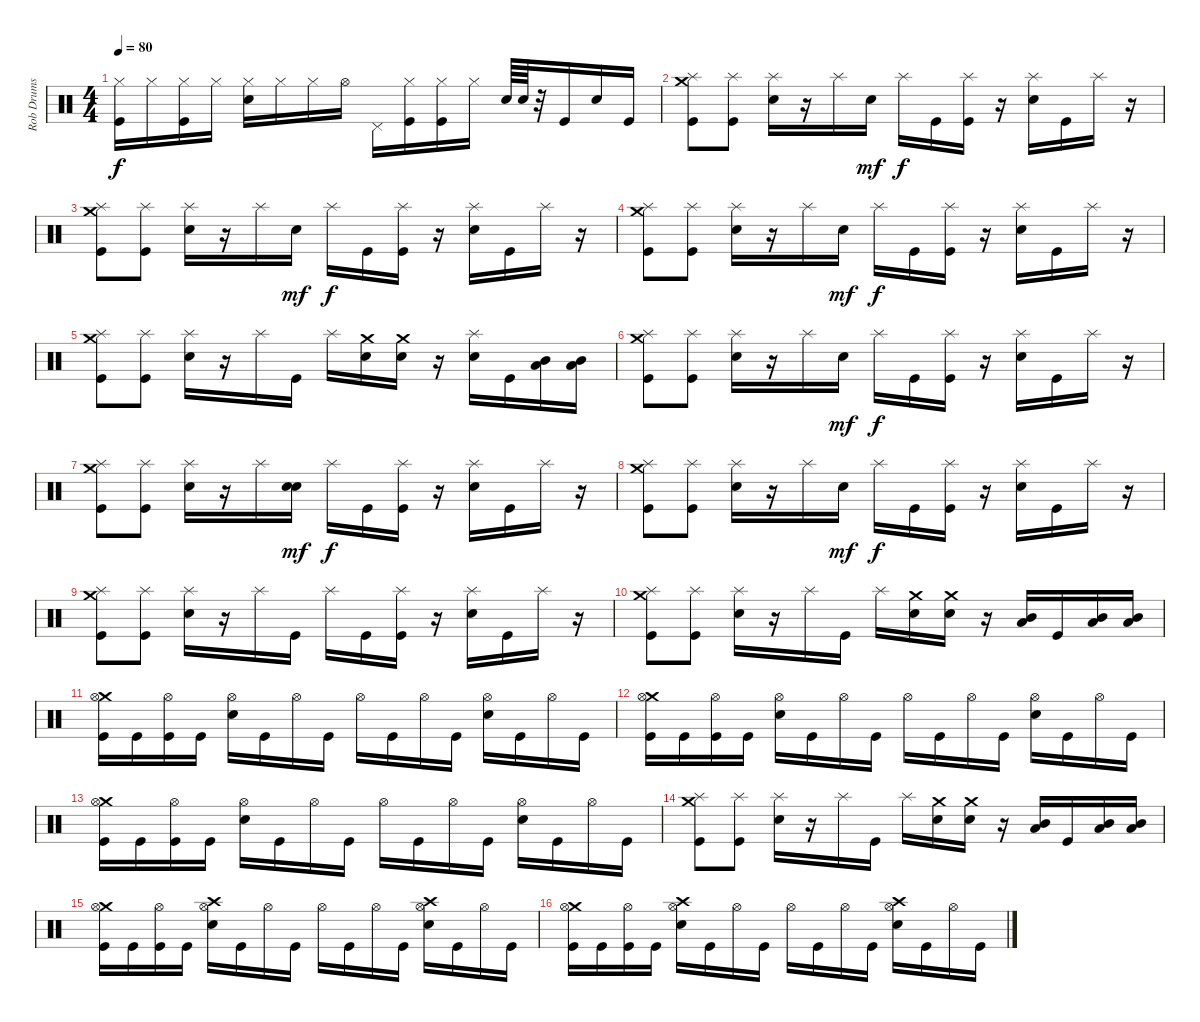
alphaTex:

\track ("Rob Drums" "Rob Drums") {instrument percussion}
\staff {score}
\articulation defaults
\ts (4 4)
\tempo 80
\clef neutral
\ks c
("Hi-Hat (closed)" "Kick (hit)").16{dy f} "Hi-Hat (closed)".16 ("Hi-Hat (closed)" "Kick (hit)").16 "Hi-Hat (closed)".16 ("Hi-Hat (closed)" "Snare (hit) 2").16 "Hi-Hat (closed)".16 "Hi-Hat (closed)".16 "Hi-Hat (open)".16 "Pedal Hi-Hat (hit)".16 ("Hi-Hat (closed)" "Kick (hit)").16 ("Hi-Hat (closed)" "Kick (hit)").16 "Hi-Hat (closed)".16 "Snare (hit) 2".64 "Snare (hit) 2".64 r.32 "Kick (hit)".16 "Snare (hit) 2".16 "Kick (hit)".16 |
("Crash medium (hit)" "Splash (hit)" "Kick (hit)").8 ("Splash (hit)" "Kick (hit)").8 ("Splash (hit)" "Snare (hit) 2").16 r.16 "Splash (hit)".16 "Snare (hit) 2".16{dy mf} "Splash (hit)".16{dy f} "Kick (hit)".16 ("Splash (hit)" "Kick (hit)").16 r.16 ("Splash (hit)" "Snare (hit) 2").16 "Kick (hit)".16 "Splash (hit)".16 r.16 |
("Crash medium (hit)" "Splash (hit)" "Kick (hit)").8 ("Splash (hit)" "Kick (hit)").8 ("Splash (hit)" "Snare (hit) 2").16 r.16 "Splash (hit)".16 "Snare (hit) 2".16{dy mf} "Splash (hit)".16{dy f} "Kick (hit)".16 ("Splash (hit)" "Kick (hit)").16 r.16 ("Splash (hit)" "Snare (hit) 2").16 "Kick (hit)".16 "Splash (hit)".16 r.16 |
("Crash medium (hit)" "Splash (hit)" "Kick (hit)").8 ("Splash (hit)" "Kick (hit)").8 ("Splash (hit)" "Snare (hit) 2").16 r.16 "Splash (hit)".16 "Snare (hit) 2".16{dy mf} "Splash (hit)".16{dy f} "Kick (hit)".16 ("Splash (hit)" "Kick (hit)").16 r.16 ("Splash (hit)" "Snare (hit) 2").16 "Kick (hit)".16 "Splash (hit)".16 r.16 |
("Crash medium (hit)" "Splash (hit)" "Kick (hit)").8 ("Splash (hit)" "Kick (hit)").8 ("Splash (hit)" "Snare (hit) 2").16 r.16 "Splash (hit)".16 "Kick (hit)".16 "Splash (hit)".16 ("Crash medium (hit)" "Snare (hit) 2").16 ("Crash medium (hit)" "Snare (hit) 2").16 r.16 ("Splash (hit)" "Snare (hit) 2").16 "Kick (hit)".16 ("Mid Tom (hit)" "Low Tom (hit)").16 ("Mid Tom (hit)" "Low Tom (hit)").16 |
("Crash medium (hit)" "Splash (hit)" "Kick (hit)").8 ("Splash (hit)" "Kick (hit)").8 ("Splash (hit)" "Snare (hit) 2").16 r.16 "Splash (hit)".16 "Snare (hit) 2".16{dy mf} "Splash (hit)".16{dy f} "Kick (hit)".16 ("Splash (hit)" "Kick (hit)").16 r.16 ("Splash (hit)" "Snare (hit) 2").16 "Kick (hit)".16 "Splash (hit)".16 r.16 |
("Crash medium (hit)" "Splash (hit)" "Kick (hit)").8 ("Splash (hit)" "Kick (hit)").8 ("Splash (hit)" "Snare (hit) 2").16 r.16 "Splash (hit)".16 ("Electric Snare (hit)" "Snare (hit) 2").16{dy mf} "Splash (hit)".16{dy f} "Kick (hit)".16 ("Splash (hit)" "Kick (hit)").16 r.16 ("Splash (hit)" "Snare (hit) 2").16 "Kick (hit)".16 "Splash (hit)".16 r.16 |
("Crash medium (hit)" "Splash (hit)" "Kick (hit)").8 ("Splash (hit)" "Kick (hit)").8 ("Splash (hit)" "Snare (hit) 2").16 r.16 "Splash (hit)".16 "Snare (hit) 2".16{dy mf} "Splash (hit)".16{dy f} "Kick (hit)".16 ("Splash (hit)" "Kick (hit)").16 r.16 ("Splash (hit)" "Snare (hit) 2").16 "Kick (hit)".16 "Splash (hit)".16 r.16 |
("Crash medium (hit)" "Splash (hit)" "Kick (hit)").8 ("Splash (hit)" "Kick (hit)").8 ("Splash (hit)" "Snare (hit) 2").16 r.16 "Splash (hit)".16 "Kick (hit)".16 "Splash (hit)".16 "Kick (hit)".16 ("Splash (hit)" "Kick (hit)").16 r.16 ("Splash (hit)" "Snare (hit) 2").16 "Kick (hit)".16 "Splash (hit)".16 r.16 |
("Crash medium (hit)" "Splash (hit)" "Kick (hit)").8 ("Splash (hit)" "Kick (hit)").8 ("Splash (hit)" "Snare (hit) 2").16 r.16 "Splash (hit)".16 "Kick (hit)".16 "Splash (hit)".16 ("Crash medium (hit)" "Snare (hit)").16 ("Crash medium (hit)" "Snare (hit)").16 r.16 ("Mid Tom (hit)" "Low Tom (hit)").16 "Kick (hit)".16 ("Mid Tom (hit)" "Low Tom (hit)").16 ("Mid Tom (hit)" "Low Tom (hit)").16 |
("Crash medium (hit)" "Hi-Hat (open)" "Kick (hit)").16 "Kick (hit)".16 ("Hi-Hat (open)" "Kick (hit)").16 "Kick (hit)".16 ("Hi-Hat (open)" "Snare (hit) 2").16 "Kick (hit)".16 "Hi-Hat (open)".16 "Kick (hit)".16 "Hi-Hat (open)".16 "Kick (hit)".16 "Hi-Hat (open)".16 "Kick (hit)".16 ("Hi-Hat (open)" "Snare (hit) 2").16 "Kick (hit)".16 "Hi-Hat (open)".16 "Kick (hit)".16 |
("Crash medium (hit)" "Hi-Hat (open)" "Kick (hit)").16 "Kick (hit)".16 ("Hi-Hat (open)" "Kick (hit)").16 "Kick (hit)".16 ("Hi-Hat (open)" "Snare (hit) 2").16 "Kick (hit)".16 "Hi-Hat (open)".16 "Kick (hit)".16 "Hi-Hat (open)".16 "Kick (hit)".16 "Hi-Hat (open)".16 "Kick (hit)".16 ("Hi-Hat (open)" "Snare (hit) 2").16 "Kick (hit)".16 "Hi-Hat (open)".16 "Kick (hit)".16 |
("Crash medium (hit)" "Hi-Hat (open)" "Kick (hit)").16 "Kick (hit)".16 ("Hi-Hat (open)" "Kick (hit)").16 "Kick (hit)".16 ("Hi-Hat (open)" "Snare (hit) 2").16 "Kick (hit)".16 "Hi-Hat (open)".16 "Kick (hit)".16 "Hi-Hat (open)".16 "Kick (hit)".16 "Hi-Hat (open)".16 "Kick (hit)".16 ("Hi-Hat (open)" "Snare (hit) 2").16 "Kick (hit)".16 "Hi-Hat (open)".16 "Kick (hit)".16 |
("Crash medium (hit)" "Splash (hit)" "Kick (hit)").8 ("Splash (hit)" "Kick (hit)").8 ("Splash (hit)" "Snare (hit) 2").16 r.16 "Splash (hit)".16 "Kick (hit)".16 "Splash (hit)".16 ("Crash medium (hit)" "Snare (hit)").16 ("Crash medium (hit)" "Snare (hit)").16 r.16 ("Mid Tom (hit)" "Low Tom (hit)").16 "Kick (hit)".16 ("Mid Tom (hit)" "Low Tom (hit)").16 ("Mid Tom (hit)" "Low Tom (hit)").16 |
("Crash medium (hit)" "Hi-Hat (open)" "Kick (hit)").16 "Kick (hit)".16 ("Hi-Hat (open)" "Kick (hit)").16 "Kick (hit)".16 ("Crash high (hit)" "Hi-Hat (open)" "Snare (hit) 2").16 "Kick (hit)".16 "Hi-Hat (open)".16 "Kick (hit)".16 "Hi-Hat (open)".16 "Kick (hit)".16 "Hi-Hat (open)".16 "Kick (hit)".16 ("Crash high (hit)" "Hi-Hat (open)" "Snare (hit) 2").16 "Kick (hit)".16 "Hi-Hat (open)".16 "Kick (hit)".16 |
("Crash medium (hit)" "Hi-Hat (open)" "Kick (hit)").16 "Kick (hit)".16 ("Hi-Hat (open)" "Kick (hit)").16 "Kick (hit)".16 ("Crash high (hit)" "Hi-Hat (open)" "Snare (hit) 2").16 "Kick (hit)".16 "Hi-Hat (open)".16 "Kick (hit)".16 "Hi-Hat (open)".16 "Kick (hit)".16 "Hi-Hat (open)".16 "Kick (hit)".16 ("Crash high (hit)" "Hi-Hat (open)" "Snare (hit) 2").16 "Kick (hit)".16 "Hi-Hat (open)".16 "Kick (hit)".16
